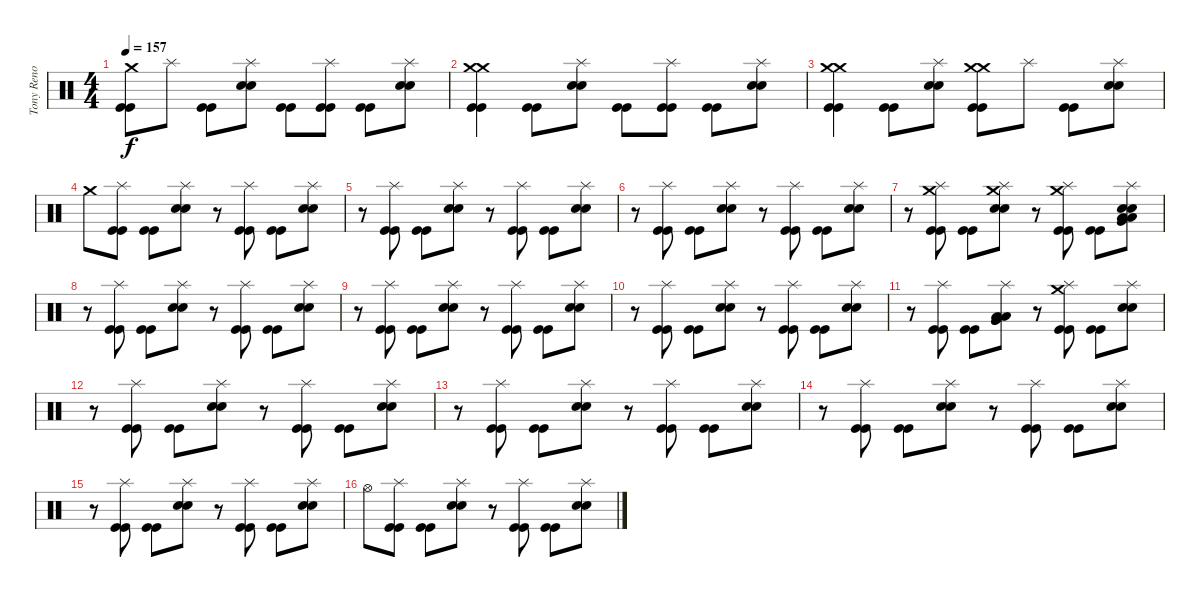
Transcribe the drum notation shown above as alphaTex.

\track ("Tony Reno ( 1984 < Ian Haughland )" "Tony Reno ") {instrument percussion}
\staff {score}
\articulation defaults
\ts (4 4)
\tempo 157
\clef neutral
\ks c
("Kick (hit)" "Kick (hit)" "Crash medium (hit)").8{dy f} "Splash (hit)".8 ("Kick (hit)" "Kick (hit)").8 ("Electric Snare (hit)" "Electric Snare (hit)" "Splash (hit)").8 ("Kick (hit)" "Kick (hit)").8 ("Kick (hit)" "Kick (hit)" "Splash (hit)").8 ("Kick (hit)" "Kick (hit)").8 ("Electric Snare (hit)" "Electric Snare (hit)" "Splash (hit)").8 |
("Crash medium (hit)" "Crash medium (hit)" "Kick (hit)" "Kick (hit)").4 ("Kick (hit)" "Kick (hit)").8 ("Splash (hit)" "Electric Snare (hit)" "Electric Snare (hit)").8 ("Kick (hit)" "Kick (hit)").8 ("Splash (hit)" "Kick (hit)" "Kick (hit)").8 ("Kick (hit)" "Kick (hit)").8 ("Electric Snare (hit)" "Electric Snare (hit)" "Splash (hit)").8 |
("Crash medium (hit)" "Crash medium (hit)" "Kick (hit)" "Kick (hit)").4 ("Kick (hit)" "Kick (hit)").8 ("Splash (hit)" "Electric Snare (hit)" "Electric Snare (hit)").8 ("Crash medium (hit)" "Kick (hit)" "Kick (hit)" "Crash medium (hit)").8 "Splash (hit)".8 ("Kick (hit)" "Kick (hit)").8 ("Electric Snare (hit)" "Electric Snare (hit)" "Splash (hit)").8 |
"Crash medium (hit)".8 ("Kick (hit)" "Kick (hit)" "Splash (hit)").8 ("Kick (hit)" "Kick (hit)").8 ("Splash (hit)" "Electric Snare (hit)" "Electric Snare (hit)").8 r.8 ("Kick (hit)" "Kick (hit)" "Splash (hit)").8 ("Kick (hit)" "Kick (hit)").8 ("Splash (hit)" "Electric Snare (hit)" "Electric Snare (hit)").8 |
r.8 ("Kick (hit)" "Kick (hit)" "Splash (hit)").8 ("Kick (hit)" "Kick (hit)").8 ("Splash (hit)" "Electric Snare (hit)" "Electric Snare (hit)").8 r.8 ("Kick (hit)" "Kick (hit)" "Splash (hit)").8 ("Kick (hit)" "Kick (hit)").8 ("Splash (hit)" "Electric Snare (hit)" "Electric Snare (hit)").8 |
r.8 ("Kick (hit)" "Kick (hit)" "Splash (hit)").8 ("Kick (hit)" "Kick (hit)").8 ("Splash (hit)" "Electric Snare (hit)" "Electric Snare (hit)").8 r.8 ("Kick (hit)" "Kick (hit)" "Splash (hit)").8 ("Kick (hit)" "Kick (hit)").8 ("Splash (hit)" "Electric Snare (hit)" "Electric Snare (hit)").8 |
r.8 ("Crash medium (hit)" "Kick (hit)" "Kick (hit)" "Splash (hit)").8 ("Kick (hit)" "Kick (hit)").8 ("Crash medium (hit)" "Splash (hit)" "Electric Snare (hit)" "Electric Snare (hit)").8 r.8 ("Crash medium (hit)" "Kick (hit)" "Kick (hit)" "Splash (hit)").8 ("Kick (hit)" "Kick (hit)").8 ("Low Tom (hit)" "Very Low Tom (hit)" "Low Floor Tom (hit)" "Splash (hit)" "Electric Snare (hit)" "Electric Snare (hit)").8 |
r.8 ("Kick (hit)" "Kick (hit)" "Splash (hit)").8 ("Kick (hit)" "Kick (hit)").8 ("Splash (hit)" "Electric Snare (hit)" "Electric Snare (hit)").8 r.8 ("Kick (hit)" "Kick (hit)" "Splash (hit)").8 ("Kick (hit)" "Kick (hit)").8 ("Splash (hit)" "Electric Snare (hit)" "Electric Snare (hit)").8 |
r.8 ("Kick (hit)" "Kick (hit)" "Splash (hit)").8 ("Kick (hit)" "Kick (hit)").8 ("Splash (hit)" "Electric Snare (hit)" "Electric Snare (hit)").8 r.8 ("Kick (hit)" "Kick (hit)" "Splash (hit)").8 ("Kick (hit)" "Kick (hit)").8 ("Splash (hit)" "Electric Snare (hit)" "Electric Snare (hit)").8 |
r.8 ("Kick (hit)" "Kick (hit)" "Splash (hit)").8 ("Kick (hit)" "Kick (hit)").8 ("Splash (hit)" "Electric Snare (hit)" "Electric Snare (hit)").8 r.8 ("Kick (hit)" "Kick (hit)" "Splash (hit)").8 ("Kick (hit)" "Kick (hit)").8 ("Electric Snare (hit)" "Electric Snare (hit)" "Splash (hit)").8 |
r.8 ("Kick (hit)" "Kick (hit)" "Splash (hit)").8 ("Kick (hit)" "Kick (hit)").8 ("Low Tom (hit)" "Low Tom (hit)" "Very Low Tom (hit)" "Very Low Tom (hit)" "Splash (hit)").8 r.8 ("Crash medium (hit)" "Kick (hit)" "Kick (hit)" "Splash (hit)").8 ("Kick (hit)" "Kick (hit)").8 ("Electric Snare (hit)" "Electric Snare (hit)" "Splash (hit)").8 |
r.8 ("Kick (hit)" "Kick (hit)" "Splash (hit)").8 ("Kick (hit)" "Kick (hit)").8 ("Splash (hit)" "Electric Snare (hit)" "Electric Snare (hit)").8 r.8 ("Kick (hit)" "Kick (hit)" "Splash (hit)").8 ("Kick (hit)" "Kick (hit)").8 ("Electric Snare (hit)" "Electric Snare (hit)" "Splash (hit)").8 |
r.8 ("Kick (hit)" "Kick (hit)" "Splash (hit)").8 ("Kick (hit)" "Kick (hit)").8 ("Splash (hit)" "Electric Snare (hit)" "Electric Snare (hit)").8 r.8 ("Kick (hit)" "Kick (hit)" "Splash (hit)").8 ("Kick (hit)" "Kick (hit)").8 ("Electric Snare (hit)" "Electric Snare (hit)" "Splash (hit)").8 |
r.8 ("Kick (hit)" "Kick (hit)" "Splash (hit)").8 ("Kick (hit)" "Kick (hit)").8 ("Splash (hit)" "Electric Snare (hit)" "Electric Snare (hit)").8 r.8 ("Kick (hit)" "Kick (hit)" "Splash (hit)").8 ("Kick (hit)" "Kick (hit)").8 ("Electric Snare (hit)" "Electric Snare (hit)" "Splash (hit)").8 |
r.8 ("Kick (hit)" "Kick (hit)" "Splash (hit)").8 ("Kick (hit)" "Kick (hit)").8 ("Splash (hit)" "Electric Snare (hit)" "Electric Snare (hit)").8 r.8 ("Kick (hit)" "Kick (hit)" "Splash (hit)").8 ("Kick (hit)" "Kick (hit)").8 ("Electric Snare (hit)" "Electric Snare (hit)" "Splash (hit)").8 |
"Hi-Hat (open)".8 ("Kick (hit)" "Kick (hit)" "Splash (hit)").8 ("Kick (hit)" "Kick (hit)").8 ("Splash (hit)" "Electric Snare (hit)" "Electric Snare (hit)").8 r.8 ("Kick (hit)" "Kick (hit)" "Splash (hit)").8 ("Kick (hit)" "Kick (hit)").8 ("Electric Snare (hit)" "Electric Snare (hit)" "Splash (hit)").8
